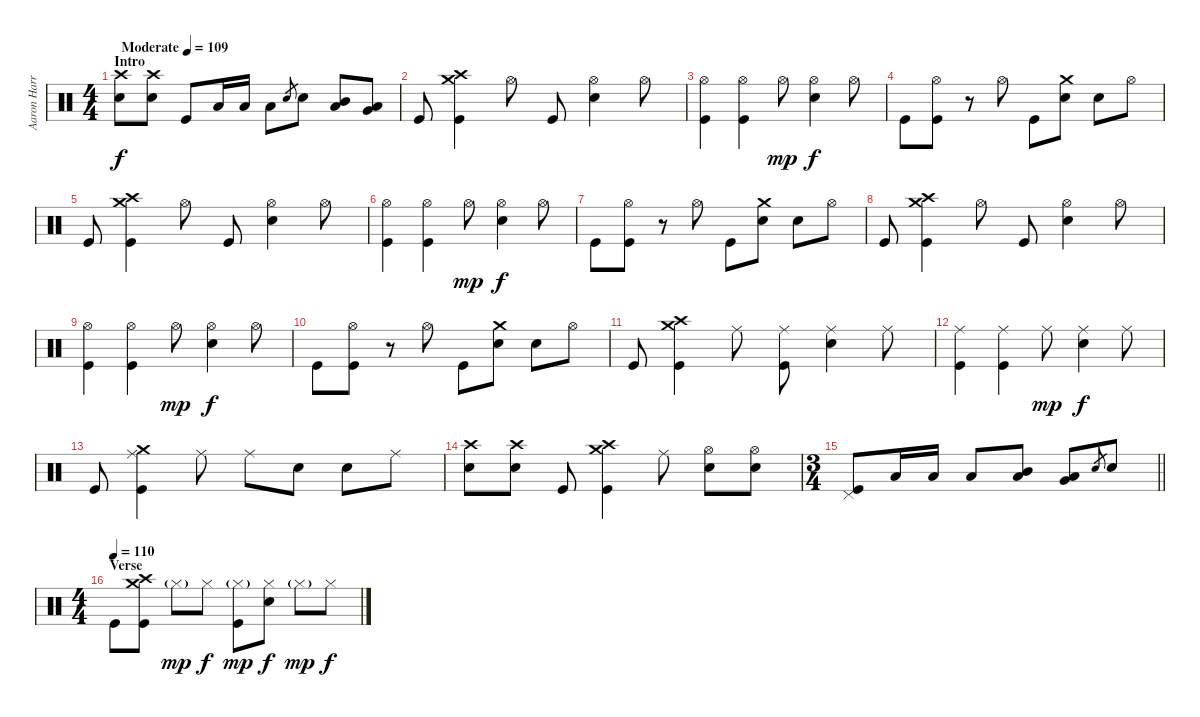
\track ("Aaron Harris" "Aaron Harr") {instrument percussion}
\staff {score}
\articulation defaults
\ts (4 4)
\section ("" "Intro")
\tempo (109 "Moderate")
\clef neutral
\ks c
("Crash high (hit)" "Electric Snare (hit)").8{dy f} ("Crash high (hit)" "Electric Snare (hit)").8 "Kick (hit)".8 "Low Tom (hit)".16 "Low Tom (hit)".16 "Low Tom (hit)".8 "Electric Snare (hit)".8{gr} "Electric Snare (hit)".8 ("Mid Tom (hit)" "Low Tom (hit)").8 ("Low Tom (hit)" "Very Low Tom (hit)").8 |
"Kick (hit)".8 ("Crash medium (hit)" "Crash high (hit)" "Kick (hit)").4 "Hi-Hat (open)".8 "Kick (hit)".8 ("Hi-Hat (open)" "Electric Snare (hit)").4 "Hi-Hat (open)".8 |
("Hi-Hat (open)" "Kick (hit)").4 ("Hi-Hat (open)" "Kick (hit)").4 "Hi-Hat (open)".8{dy mp} ("Hi-Hat (open)" "Electric Snare (hit)").4{dy f} "Hi-Hat (open)".8 |
"Kick (hit)".8 ("Hi-Hat (open)" "Kick (hit)").8 r.8 "Hi-Hat (open)".8 "Kick (hit)".8 ("Crash medium (hit)" "Electric Snare (hit)").8 "Electric Snare (hit)".8 "Hi-Hat (open)".8 |
"Kick (hit)".8 ("Crash medium (hit)" "Crash high (hit)" "Kick (hit)").4 "Hi-Hat (open)".8 "Kick (hit)".8 ("Hi-Hat (open)" "Electric Snare (hit)").4 "Hi-Hat (open)".8 |
("Hi-Hat (open)" "Kick (hit)").4 ("Hi-Hat (open)" "Kick (hit)").4 "Hi-Hat (open)".8{dy mp} ("Hi-Hat (open)" "Electric Snare (hit)").4{dy f} "Hi-Hat (open)".8 |
"Kick (hit)".8 ("Hi-Hat (open)" "Kick (hit)").8 r.8 "Hi-Hat (open)".8 "Kick (hit)".8 ("Crash medium (hit)" "Electric Snare (hit)").8 "Electric Snare (hit)".8 "Hi-Hat (open)".8 |
"Kick (hit)".8 ("Crash medium (hit)" "Crash high (hit)" "Kick (hit)").4 "Hi-Hat (open)".8 "Kick (hit)".8 ("Hi-Hat (open)" "Electric Snare (hit)").4 "Hi-Hat (open)".8 |
("Hi-Hat (open)" "Kick (hit)").4 ("Hi-Hat (open)" "Kick (hit)").4 "Hi-Hat (open)".8{dy mp} ("Hi-Hat (open)" "Electric Snare (hit)").4{dy f} "Hi-Hat (open)".8 |
"Kick (hit)".8 ("Hi-Hat (open)" "Kick (hit)").8 r.8 "Hi-Hat (open)".8 "Kick (hit)".8 ("Crash medium (hit)" "Electric Snare (hit)").8 "Electric Snare (hit)".8 "Hi-Hat (open)".8 |
"Kick (hit)".8 ("Crash medium (hit)" "Crash high (hit)" "Kick (hit)").4 "Ride (middle)".8 ("Ride (middle)" "Kick (hit)").8 ("Ride (middle)" "Electric Snare (hit)").4 "Ride (middle)".8 |
("Ride (middle)" "Kick (hit)").4 ("Ride (middle)" "Kick (hit)").4 "Ride (middle)".8{dy mp} ("Ride (middle)" "Electric Snare (hit)").4{dy f} "Ride (middle)".8 |
"Kick (hit)".8 ("Crash medium (hit)" "Ride (middle)" "Kick (hit)").4 "Ride (middle)".8 "Ride (middle)".8 "Electric Snare (hit)".8 "Electric Snare (hit)".8 "Ride (middle)".8 |
("Crash high (hit)" "Electric Snare (hit)").8 ("Crash high (hit)" "Electric Snare (hit)").8 "Kick (hit)".8 ("Crash medium (hit)" "Crash high (hit)" "Kick (hit)").4 "Ride (middle)".8 ("Hi-Hat (open)" "Electric Snare (hit)").8 ("Hi-Hat (open)" "Electric Snare (hit)").8 |
\ts (3 4)
\barLineRight lightlight
("Pedal Hi-Hat (hit)" "Kick (hit)").8 "Low Tom (hit)".16 "Low Tom (hit)".16 "Low Tom (hit)".8 ("Mid Tom (hit)" "Low Tom (hit)").8 ("Low Tom (hit)" "Very Low Tom (hit)").8 "Electric Snare (hit)".8{gr} "Electric Snare (hit)".8 |
\ts (4 4)
\section ("" "Verse")
\tempo (110)
"Kick (hit)".8 ("Crash medium (hit)" "Crash high (hit)" "Kick (hit)").8 "Hi-Hat (closed)"{g}.8{dy mp} "Hi-Hat (closed)".8{dy f} ("Hi-Hat (closed)"{g} "Kick (hit)").8{dy mp} ("Hi-Hat (closed)" "Electric Snare (hit)").8{dy f} "Hi-Hat (closed)"{g}.8{dy mp} "Hi-Hat (closed)".8{dy f}
